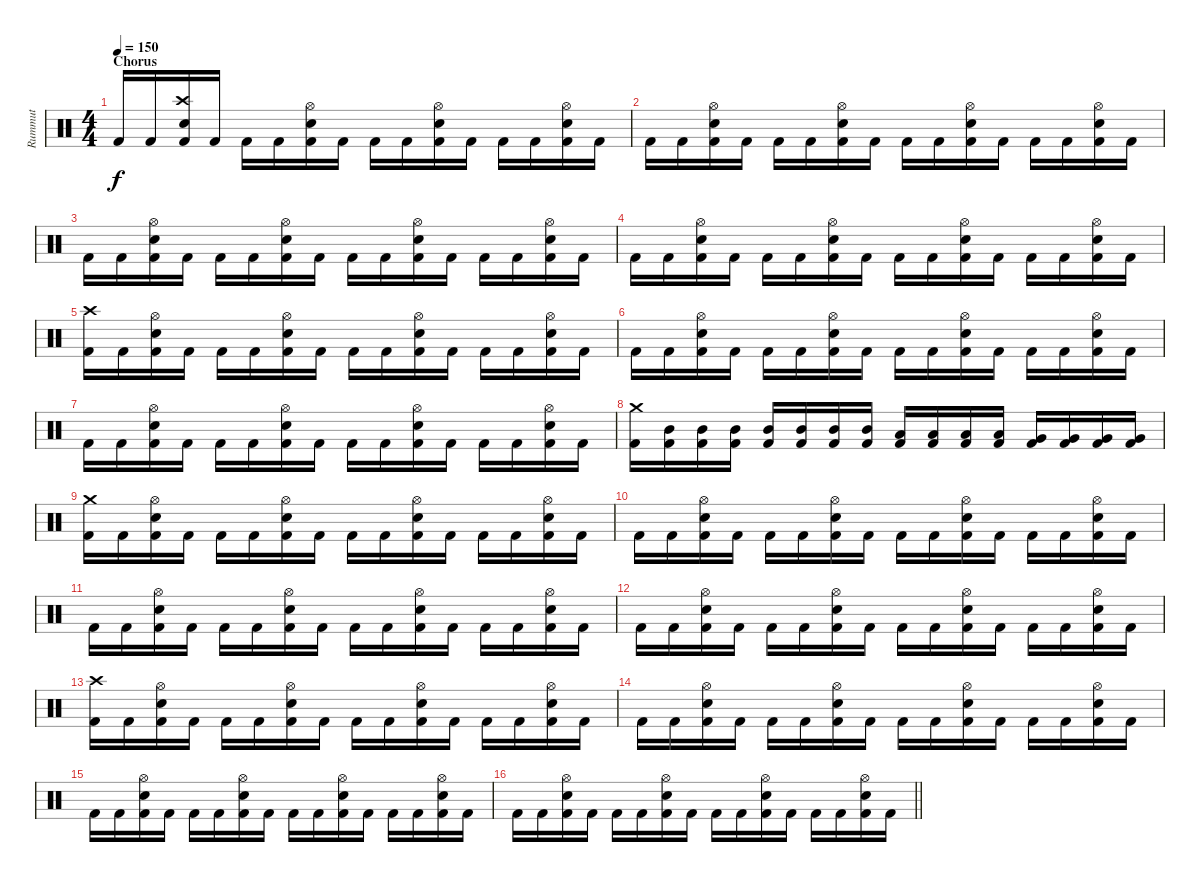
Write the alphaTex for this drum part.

\track ("Rummut" "Rummut") {instrument percussion}
\staff {score}
\articulation defaults
\ts (4 4)
\section ("" "Chorus")
\tempo 150
\clef neutral
\ks c "Kick (hit) 2".16{dy f} "Kick (hit) 2".16
("Crash high (hit)" "Snare (hit) 2" "Kick (hit) 2").16 "Kick (hit) 2".16 "Kick (hit) 2".16 "Kick (hit) 2".16 ("Hi-Hat (open)" "Snare (hit) 2" "Kick (hit) 2").16 "Kick (hit) 2".16 "Kick (hit) 2".16 "Kick (hit) 2".16 ("Hi-Hat (open)" "Snare (hit) 2" "Kick (hit) 2").16 "Kick (hit) 2".16 "Kick (hit) 2".16 "Kick (hit) 2".16 ("Hi-Hat (open)" "Snare (hit) 2" "Kick (hit) 2").16 "Kick (hit) 2".16 |
"Kick (hit) 2".16 "Kick (hit) 2".16 ("Hi-Hat (open)" "Snare (hit) 2" "Kick (hit) 2").16 "Kick (hit) 2".16 "Kick (hit) 2".16 "Kick (hit) 2".16 ("Hi-Hat (open)" "Snare (hit) 2" "Kick (hit) 2").16 "Kick (hit) 2".16 "Kick (hit) 2".16 "Kick (hit) 2".16 ("Hi-Hat (open)" "Snare (hit) 2" "Kick (hit) 2").16 "Kick (hit) 2".16 "Kick (hit) 2".16 "Kick (hit) 2".16 ("Hi-Hat (open)" "Snare (hit) 2" "Kick (hit) 2").16 "Kick (hit) 2".16 |
"Kick (hit) 2".16 "Kick (hit) 2".16 ("Hi-Hat (open)" "Snare (hit) 2" "Kick (hit) 2").16 "Kick (hit) 2".16 "Kick (hit) 2".16 "Kick (hit) 2".16 ("Hi-Hat (open)" "Snare (hit) 2" "Kick (hit) 2").16 "Kick (hit) 2".16 "Kick (hit) 2".16 "Kick (hit) 2".16 ("Hi-Hat (open)" "Snare (hit) 2" "Kick (hit) 2").16 "Kick (hit) 2".16 "Kick (hit) 2".16 "Kick (hit) 2".16 ("Hi-Hat (open)" "Snare (hit) 2" "Kick (hit) 2").16 "Kick (hit) 2".16 |
"Kick (hit) 2".16 "Kick (hit) 2".16 ("Hi-Hat (open)" "Snare (hit) 2" "Kick (hit) 2").16 "Kick (hit) 2".16 "Kick (hit) 2".16 "Kick (hit) 2".16 ("Hi-Hat (open)" "Snare (hit) 2" "Kick (hit) 2").16 "Kick (hit) 2".16 "Kick (hit) 2".16 "Kick (hit) 2".16 ("Hi-Hat (open)" "Snare (hit) 2" "Kick (hit) 2").16 "Kick (hit) 2".16 "Kick (hit) 2".16 "Kick (hit) 2".16 ("Hi-Hat (open)" "Snare (hit) 2" "Kick (hit) 2").16 "Kick (hit) 2".16 |
("Crash high (hit)" "Kick (hit) 2").16 "Kick (hit) 2".16 ("Hi-Hat (open)" "Snare (hit) 2" "Kick (hit) 2").16 "Kick (hit) 2".16 "Kick (hit) 2".16 "Kick (hit) 2".16 ("Hi-Hat (open)" "Snare (hit) 2" "Kick (hit) 2").16 "Kick (hit) 2".16 "Kick (hit) 2".16 "Kick (hit) 2".16 ("Hi-Hat (open)" "Snare (hit) 2" "Kick (hit) 2").16 "Kick (hit) 2".16 "Kick (hit) 2".16 "Kick (hit) 2".16 ("Hi-Hat (open)" "Snare (hit) 2" "Kick (hit) 2").16 "Kick (hit) 2".16 |
"Kick (hit) 2".16 "Kick (hit) 2".16 ("Hi-Hat (open)" "Snare (hit) 2" "Kick (hit) 2").16 "Kick (hit) 2".16 "Kick (hit) 2".16 "Kick (hit) 2".16 ("Hi-Hat (open)" "Snare (hit) 2" "Kick (hit) 2").16 "Kick (hit) 2".16 "Kick (hit) 2".16 "Kick (hit) 2".16 ("Hi-Hat (open)" "Snare (hit) 2" "Kick (hit) 2").16 "Kick (hit) 2".16 "Kick (hit) 2".16 "Kick (hit) 2".16 ("Hi-Hat (open)" "Snare (hit) 2" "Kick (hit) 2").16 "Kick (hit) 2".16 |
"Kick (hit) 2".16 "Kick (hit) 2".16 ("Hi-Hat (open)" "Snare (hit) 2" "Kick (hit) 2").16 "Kick (hit) 2".16 "Kick (hit) 2".16 "Kick (hit) 2".16 ("Hi-Hat (open)" "Snare (hit) 2" "Kick (hit) 2").16 "Kick (hit) 2".16 "Kick (hit) 2".16 "Kick (hit) 2".16 ("Hi-Hat (open)" "Snare (hit) 2" "Kick (hit) 2").16 "Kick (hit) 2".16 "Kick (hit) 2".16 "Kick (hit) 2".16 ("Hi-Hat (open)" "Snare (hit) 2" "Kick (hit) 2").16 "Kick (hit) 2".16 |
("Crash medium (hit)" "Kick (hit) 2").16 ("Mid Tom (hit)" "Kick (hit) 2").16 ("Mid Tom (hit)" "Kick (hit) 2").16 ("Mid Tom (hit)" "Kick (hit) 2").16 ("Mid Tom (hit)" "Kick (hit) 2").16 ("Mid Tom (hit)" "Kick (hit) 2").16 ("Mid Tom (hit)" "Kick (hit) 2").16 ("Mid Tom (hit)" "Kick (hit) 2").16 ("Low Tom (hit)" "Kick (hit) 2").16 ("Low Tom (hit)" "Kick (hit) 2").16 ("Low Tom (hit)" "Kick (hit) 2").16 ("Low Tom (hit)" "Kick (hit) 2").16 ("Very Low Tom (hit)" "Kick (hit) 2").16 ("Very Low Tom (hit)" "Kick (hit) 2").16 ("Very Low Tom (hit)" "Kick (hit) 2").16 ("Very Low Tom (hit)" "Kick (hit) 2").16 |
("Crash medium (hit)" "Kick (hit) 2").16 "Kick (hit) 2".16 ("Hi-Hat (open)" "Snare (hit) 2" "Kick (hit) 2").16 "Kick (hit) 2".16 "Kick (hit) 2".16 "Kick (hit) 2".16 ("Hi-Hat (open)" "Snare (hit) 2" "Kick (hit) 2").16 "Kick (hit) 2".16 "Kick (hit) 2".16 "Kick (hit) 2".16 ("Hi-Hat (open)" "Snare (hit) 2" "Kick (hit) 2").16 "Kick (hit) 2".16 "Kick (hit) 2".16 "Kick (hit) 2".16 ("Hi-Hat (open)" "Snare (hit) 2" "Kick (hit) 2").16 "Kick (hit) 2".16 |
"Kick (hit) 2".16 "Kick (hit) 2".16 ("Hi-Hat (open)" "Snare (hit) 2" "Kick (hit) 2").16 "Kick (hit) 2".16 "Kick (hit) 2".16 "Kick (hit) 2".16 ("Hi-Hat (open)" "Snare (hit) 2" "Kick (hit) 2").16 "Kick (hit) 2".16 "Kick (hit) 2".16 "Kick (hit) 2".16 ("Hi-Hat (open)" "Snare (hit) 2" "Kick (hit) 2").16 "Kick (hit) 2".16 "Kick (hit) 2".16 "Kick (hit) 2".16 ("Hi-Hat (open)" "Snare (hit) 2" "Kick (hit) 2").16 "Kick (hit) 2".16 |
"Kick (hit) 2".16 "Kick (hit) 2".16 ("Hi-Hat (open)" "Snare (hit) 2" "Kick (hit) 2").16 "Kick (hit) 2".16 "Kick (hit) 2".16 "Kick (hit) 2".16 ("Hi-Hat (open)" "Snare (hit) 2" "Kick (hit) 2").16 "Kick (hit) 2".16 "Kick (hit) 2".16 "Kick (hit) 2".16 ("Hi-Hat (open)" "Snare (hit) 2" "Kick (hit) 2").16 "Kick (hit) 2".16 "Kick (hit) 2".16 "Kick (hit) 2".16 ("Hi-Hat (open)" "Snare (hit) 2" "Kick (hit) 2").16 "Kick (hit) 2".16 |
"Kick (hit) 2".16 "Kick (hit) 2".16 ("Hi-Hat (open)" "Snare (hit) 2" "Kick (hit) 2").16 "Kick (hit) 2".16 "Kick (hit) 2".16 "Kick (hit) 2".16 ("Hi-Hat (open)" "Snare (hit) 2" "Kick (hit) 2").16 "Kick (hit) 2".16 "Kick (hit) 2".16 "Kick (hit) 2".16 ("Hi-Hat (open)" "Snare (hit) 2" "Kick (hit) 2").16 "Kick (hit) 2".16 "Kick (hit) 2".16 "Kick (hit) 2".16 ("Hi-Hat (open)" "Snare (hit) 2" "Kick (hit) 2").16 "Kick (hit) 2".16 |
("Crash high (hit)" "Kick (hit) 2").16 "Kick (hit) 2".16 ("Hi-Hat (open)" "Snare (hit) 2" "Kick (hit) 2").16 "Kick (hit) 2".16 "Kick (hit) 2".16 "Kick (hit) 2".16 ("Hi-Hat (open)" "Snare (hit) 2" "Kick (hit) 2").16 "Kick (hit) 2".16 "Kick (hit) 2".16 "Kick (hit) 2".16 ("Hi-Hat (open)" "Snare (hit) 2" "Kick (hit) 2").16 "Kick (hit) 2".16 "Kick (hit) 2".16 "Kick (hit) 2".16 ("Hi-Hat (open)" "Snare (hit) 2" "Kick (hit) 2").16 "Kick (hit) 2".16 |
"Kick (hit) 2".16 "Kick (hit) 2".16 ("Hi-Hat (open)" "Snare (hit) 2" "Kick (hit) 2").16 "Kick (hit) 2".16 "Kick (hit) 2".16 "Kick (hit) 2".16 ("Hi-Hat (open)" "Snare (hit) 2" "Kick (hit) 2").16 "Kick (hit) 2".16 "Kick (hit) 2".16 "Kick (hit) 2".16 ("Hi-Hat (open)" "Snare (hit) 2" "Kick (hit) 2").16 "Kick (hit) 2".16 "Kick (hit) 2".16 "Kick (hit) 2".16 ("Hi-Hat (open)" "Snare (hit) 2" "Kick (hit) 2").16 "Kick (hit) 2".16 |
"Kick (hit) 2".16 "Kick (hit) 2".16 ("Hi-Hat (open)" "Snare (hit) 2" "Kick (hit) 2").16 "Kick (hit) 2".16 "Kick (hit) 2".16 "Kick (hit) 2".16 ("Hi-Hat (open)" "Snare (hit) 2" "Kick (hit) 2").16 "Kick (hit) 2".16 "Kick (hit) 2".16 "Kick (hit) 2".16 ("Hi-Hat (open)" "Snare (hit) 2" "Kick (hit) 2").16 "Kick (hit) 2".16 "Kick (hit) 2".16 "Kick (hit) 2".16 ("Hi-Hat (open)" "Snare (hit) 2" "Kick (hit) 2").16 "Kick (hit) 2".16 |
\barLineRight lightlight "Kick (hit) 2".16 "Kick (hit) 2".16
("Hi-Hat (open)" "Snare (hit) 2" "Kick (hit) 2").16 "Kick (hit) 2".16 "Kick (hit) 2".16 "Kick (hit) 2".16 ("Hi-Hat (open)" "Snare (hit) 2" "Kick (hit) 2").16 "Kick (hit) 2".16 "Kick (hit) 2".16 "Kick (hit) 2".16 ("Hi-Hat (open)" "Snare (hit) 2" "Kick (hit) 2").16 "Kick (hit) 2".16 "Kick (hit) 2".16 "Kick (hit) 2".16 ("Hi-Hat (open)" "Snare (hit) 2" "Kick (hit) 2").16 "Kick (hit) 2".16
